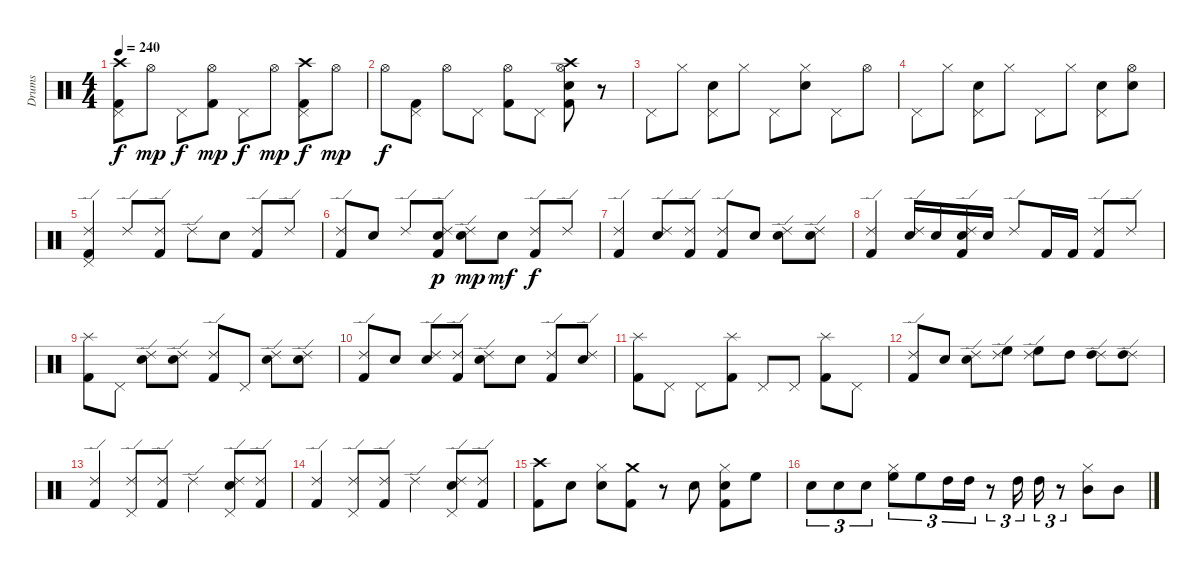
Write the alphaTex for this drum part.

\track ("Drums" "Drums") {instrument percussion}
\staff {score}
\articulation defaults
\ts (4 4)
\tempo 240
\clef neutral
\ks c
("Crash high (hit)" "Pedal Hi-Hat (hit)" "Kick (hit) 2").8{dy f} "Hi-Hat (open)".8{dy mp} "Pedal Hi-Hat (hit)".8{dy f} ("Hi-Hat (open)" "Kick (hit) 2").8{dy mp} "Pedal Hi-Hat (hit)".8{dy f} "Hi-Hat (open)".8{dy mp} ("Crash high (hit)" "Pedal Hi-Hat (hit)" "Kick (hit) 2").8{dy f} "Hi-Hat (open)".8{dy mp} |
"Hi-Hat (open)".8{dy f} ("Pedal Hi-Hat (hit)" "Kick (hit) 2").8 "Hi-Hat (open)".8 "Pedal Hi-Hat (hit)".8 ("Hi-Hat (open)" "Kick (hit) 2").8 "Pedal Hi-Hat (hit)".8 ("Crash high (hit)" "Hi-Hat (open)" "Electric Snare (hit)" "Kick (hit) 2").8 r.8 |
"Pedal Hi-Hat (hit)".8 "Hi-Hat (closed)".8 ("Pedal Hi-Hat (hit)" "Electric Snare (hit)").8 "Hi-Hat (closed)".8 "Pedal Hi-Hat (hit)".8 ("Hi-Hat (closed)" "Electric Snare (hit)").8 "Pedal Hi-Hat (hit)".8 "Hi-Hat (open)".8 |
"Pedal Hi-Hat (hit)".8 "Hi-Hat (closed)".8 ("Pedal Hi-Hat (hit)" "Electric Snare (hit)").8 "Hi-Hat (closed)".8 "Pedal Hi-Hat (hit)".8 "Hi-Hat (closed)".8 ("Pedal Hi-Hat (hit)" "Electric Snare (hit)").8 ("Hi-Hat (open)" "Electric Snare (hit)").8 |
("Ride (edge) 2" "Pedal Hi-Hat (hit)" "Kick (hit) 2").4 "Ride (edge) 2".8 ("Ride (edge) 2" "Kick (hit) 2").8 "Ride (edge) 2".8 "Snare (hit) 2".8 ("Ride (edge) 2" "Kick (hit) 2").8 "Ride (edge) 2".8 |
("Ride (edge) 2" "Kick (hit) 2").8 "Snare (hit) 2".8 "Ride (edge) 2".8 ("Ride (edge) 2" "Snare (hit) 2" "Kick (hit) 2").8{dy p} ("Ride (edge) 2" "Snare (hit) 2").8{dy mp} "Snare (hit) 2".8{dy mf} ("Ride (edge) 2" "Kick (hit) 2").8{dy f} "Ride (edge) 2".8 |
("Ride (edge) 2" "Kick (hit) 2").4 ("Ride (edge) 2" "Snare (hit) 2").8 ("Ride (edge) 2" "Kick (hit) 2").8 ("Ride (edge) 2" "Kick (hit) 2").8 "Snare (hit) 2".8 ("Ride (edge) 2" "Snare (hit) 2").8 ("Ride (edge) 2" "Snare (hit) 2").8 |
("Ride (edge) 2" "Kick (hit) 2").4 ("Ride (edge) 2" "Snare (hit) 2").16 "Snare (hit) 2".16 ("Ride (edge) 2" "Snare (hit) 2" "Kick (hit) 2").16 "Snare (hit) 2".16 "Ride (edge) 2".8 "Kick (hit) 2".16 "Kick (hit) 2".16 ("Ride (edge) 2" "Kick (hit) 2").8 "Ride (edge) 2".8 |
("Splash (hit)" "Kick (hit) 2").8 "Pedal Hi-Hat (hit)".8 ("Ride (edge) 2" "Snare (hit) 2").8 ("Ride (edge) 2" "Snare (hit) 2").8 ("Ride (edge) 2" "Kick (hit) 2").8 "Pedal Hi-Hat (hit)".8 ("Ride (edge) 2" "Snare (hit) 2").8 ("Ride (edge) 2" "Snare (hit) 2").8 |
("Ride (edge) 2" "Kick (hit) 2").8 "Snare (hit) 2".8 ("Ride (edge) 2" "Snare (hit) 2").8 ("Ride (edge) 2" "Kick (hit) 2").8 ("Ride (edge) 2" "Snare (hit) 2").8 "Snare (hit) 2".8 ("Ride (edge) 2" "Kick (hit) 2").8 ("Ride (edge) 2" "Snare (hit) 2").8 |
("Splash (hit)" "Kick (hit) 2").8 "Pedal Hi-Hat (hit)".8 "Pedal Hi-Hat (hit)".8 ("Splash (hit)" "Kick (hit) 2").8 "Pedal Hi-Hat (hit)".8 "Pedal Hi-Hat (hit)".8 ("Splash (hit)" "Kick (hit) 2").8 "Pedal Hi-Hat (hit)".8 |
("Ride (edge) 2" "Kick (hit) 2").8 "Snare (hit) 2".8 ("Ride (edge) 2" "Snare (hit) 2").8 ("Ride (edge) 2" "High Floor Tom (hit)").8 ("Ride (edge) 2" "High Floor Tom (hit)").8 "High Tom (hit)".8 ("Ride (edge) 2" "High Tom (hit)").8 ("Ride (edge) 2" "High Tom (hit)").8 |
("Ride (edge) 2" "Kick (hit) 2").4 ("Ride (edge) 2" "Pedal Hi-Hat (hit)").8 ("Ride (edge) 2" "Kick (hit) 2").8 "Ride (edge) 2".4 ("Ride (edge) 2" "Pedal Hi-Hat (hit)" "Snare (hit) 2").8 ("Ride (edge) 2" "Kick (hit) 2").8 |
("Ride (edge) 2" "Kick (hit) 2").4 ("Ride (edge) 2" "Pedal Hi-Hat (hit)").8 ("Ride (edge) 2" "Kick (hit) 2").8 "Ride (edge) 2".4 ("Ride (edge) 2" "Pedal Hi-Hat (hit)" "Snare (hit) 2").8 ("Ride (edge) 2" "Kick (hit) 2").8 |
("Crash high (hit)" "Kick (hit) 2").8 "Snare (hit) 2".8 ("Hi-Hat (closed)" "Snare (hit) 2").8 ("Crash medium (hit)" "Kick (hit) 2").8 r.8 "Snare (hit) 2".8 ("Hi-Hat (closed)" "Snare (hit) 2" "Kick (hit) 2").8 "High Floor Tom (hit)".8 |
"Snare (hit) 2".8{tu (3 2)} "Snare (hit) 2".8{tu (3 2)} "Snare (hit) 2".8{tu (3 2)} ("Hi-Hat (closed)" "High Floor Tom (hit)").8{tu (3 2)} "High Floor Tom (hit)".8{tu (3 2)} "High Tom (hit)".16{tu (3 2)} "High Tom (hit)".16{tu (3 2)} r.8{tu (3 2)} "High Tom (hit)".16{tu (3 2)} "High Tom (hit)".16{tu (3 2)} r.8{tu (3 2)} ("Hi-Hat (closed)" "Mid Tom (hit)").8 "Mid Tom (hit)".8
